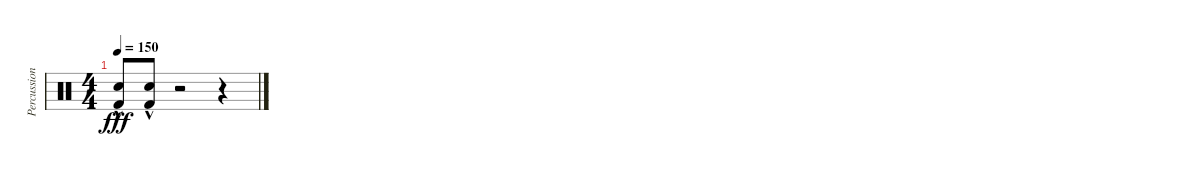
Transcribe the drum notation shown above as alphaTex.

\track ("Percussion" "Percussion") {instrument percussion}
\staff {score}
\articulation defaults
\ts (4 4)
\tempo 150
\clef neutral
\ks c
("Snare (hit) 2"{hac} "Kick (hit) 2"{hac}).8{dy fff} ("Snare (hit) 2"{hac} "Kick (hit) 2"{hac}).8 r.2 r.4
